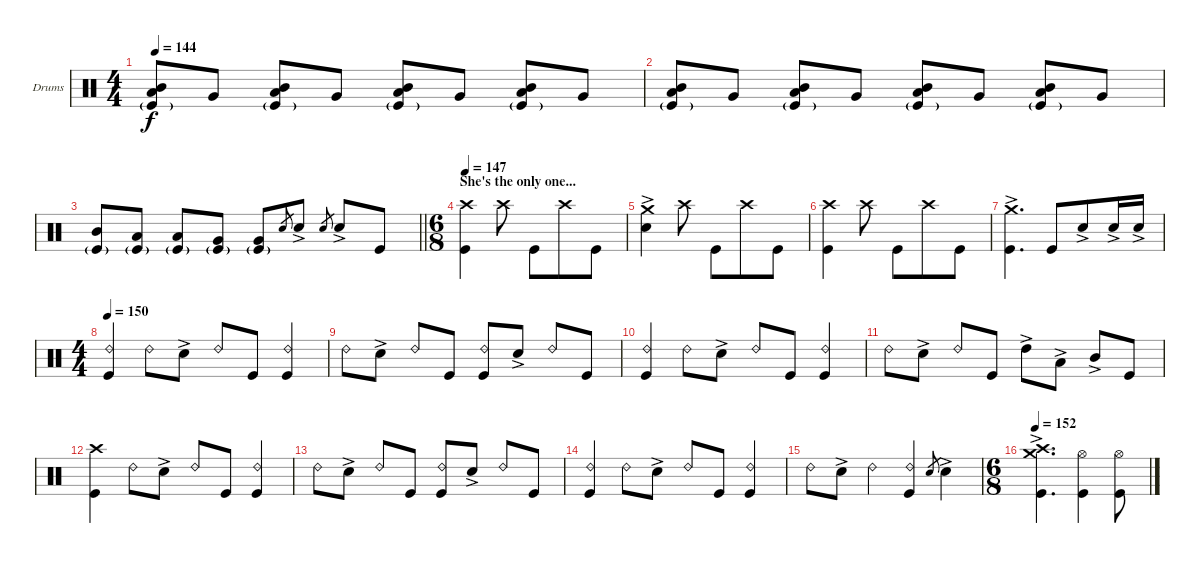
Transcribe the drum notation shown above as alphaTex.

\bracketExtendMode groupsimilarinstruments
\firstSystemTrackNameOrientation horizontal
\otherSystemsTrackNameOrientation horizontal
\track ("Drumkit" "Drums") {instrument percussion}
\staff {score}
\articulation defaults
\ts (4 4)
\tempo 144
\clef neutral
\ks c
("Low Tom (hit)" "Mid Tom (hit)" "Kick (hit)"{g}).8{dy f} "Very Low Tom (hit)".8 ("Low Tom (hit)" "Mid Tom (hit)" "Kick (hit)"{g}).8 "Very Low Tom (hit)".8 ("Low Tom (hit)" "Mid Tom (hit)" "Kick (hit)"{g}).8 "Very Low Tom (hit)".8 ("Low Tom (hit)" "Mid Tom (hit)" "Kick (hit)"{g}).8 "Very Low Tom (hit)".8 |
("Low Tom (hit)" "Mid Tom (hit)" "Kick (hit)"{g}).8 "Very Low Tom (hit)".8 ("Low Tom (hit)" "Mid Tom (hit)" "Kick (hit)"{g}).8 "Very Low Tom (hit)".8 ("Low Tom (hit)" "Mid Tom (hit)" "Kick (hit)"{g}).8 "Very Low Tom (hit)".8 ("Low Tom (hit)" "Mid Tom (hit)" "Kick (hit)"{g}).8 "Very Low Tom (hit)".8 |
\barLineRight lightlight
("Kick (hit)"{g} "Mid Tom (hit)").8 ("Low Tom (hit)" "Kick (hit)"{g}).8 ("Low Tom (hit)" "Kick (hit)"{g}).8 ("Very Low Tom (hit)" "Kick (hit)"{g}).8 ("Very Low Tom (hit)" "Kick (hit)"{g}).8 "Snare (hit) 2".8{gr} "Snare (hit) 2"{ac}.8 "Snare (hit) 2".8{gr} "Snare (hit) 2"{ac}.8 "Kick (hit)".8 |
\ts (6 8)
\beaming (8 3 3)
\section ("" "She's the only one...")
\tempo 147
("Crash high (hit)" "Kick (hit)").4 "Crash high (hit)".8 "Kick (hit)".8 "Crash high (hit)".8 "Kick (hit)".8 |
("Crash medium (hit)" "Snare (hit) 2"{ac}).4 "Crash high (hit)".8 "Kick (hit)".8 "Crash high (hit)".8 "Kick (hit)".8 |
("Crash high (hit)" "Kick (hit)").4 "Crash high (hit)".8 "Kick (hit)".8 "Crash high (hit)".8 "Kick (hit)".8 |
("Crash medium (hit)"{ac} "Kick (hit)").4{d} "Kick (hit)".8 "Snare (hit) 2"{ac}.8 "Snare (hit) 2"{ac}.16 "Snare (hit) 2"{ac}.16 |
\ts (4 4)
\beaming (8 2 2 2 2)
\tempo 150
("Kick (hit)" "Ride (bell) 2").4 "Ride (bell) 2".8 "Snare (hit) 2"{ac}.8 "Ride (bell) 2".8 "Kick (hit)".8 ("Ride (bell) 2" "Kick (hit)").4 |
"Ride (bell) 2".8 "Snare (hit) 2"{ac}.8 "Ride (bell) 2".8 "Kick (hit)".8 ("Ride (bell) 2" "Kick (hit)").8 "Snare (hit) 2"{ac}.8 "Ride (bell) 2".8 "Kick (hit)".8 |
("Ride (bell) 2" "Kick (hit)").4 "Ride (bell) 2".8 "Snare (hit) 2"{ac}.8 "Ride (bell) 2".8 "Kick (hit)".8 ("Ride (bell) 2" "Kick (hit)").4 |
"Ride (bell) 2".8 "Snare (hit) 2"{ac}.8 "Ride (bell) 2".8 "Kick (hit)".8 "High Tom (hit)"{ac}.8 "Low Tom (hit)"{ac}.8 "Mid Tom (hit)"{ac}.8 "Kick (hit)".8 |
("Crash high (hit)" "Kick (hit)").4 "Ride (bell) 2".8 "Snare (hit) 2"{ac}.8 "Ride (bell) 2".8 "Kick (hit)".8 ("Ride (bell) 2" "Kick (hit)").4 |
"Ride (bell) 2".8 "Snare (hit) 2"{ac}.8 "Ride (bell) 2".8 "Kick (hit)".8 ("Ride (bell) 2" "Kick (hit)").8 "Snare (hit) 2"{ac}.8 "Ride (bell) 2".8 "Kick (hit)".8 |
("Ride (bell) 2" "Kick (hit)").4 "Ride (bell) 2".8 "Snare (hit) 2"{ac}.8 "Ride (bell) 2".8 "Kick (hit)".8 ("Ride (bell) 2" "Kick (hit)").4 |
"Ride (bell) 2".8 "Snare (hit) 2"{ac}.8 "Ride (bell) 2".4 ("Ride (bell) 2" "Kick (hit)").4 "Snare (hit) 2".8{gr} "Snare (hit) 2"{ac}.4 |
\ts (6 8)
\beaming (8 3 3)
\tempo 152
("Crash high (hit)" "Crash medium (hit)"{ac} "Kick (hit)").4{d} ("Hi-Hat (open)" "Kick (hit)").4 ("Hi-Hat (open)" "Kick (hit)").8
